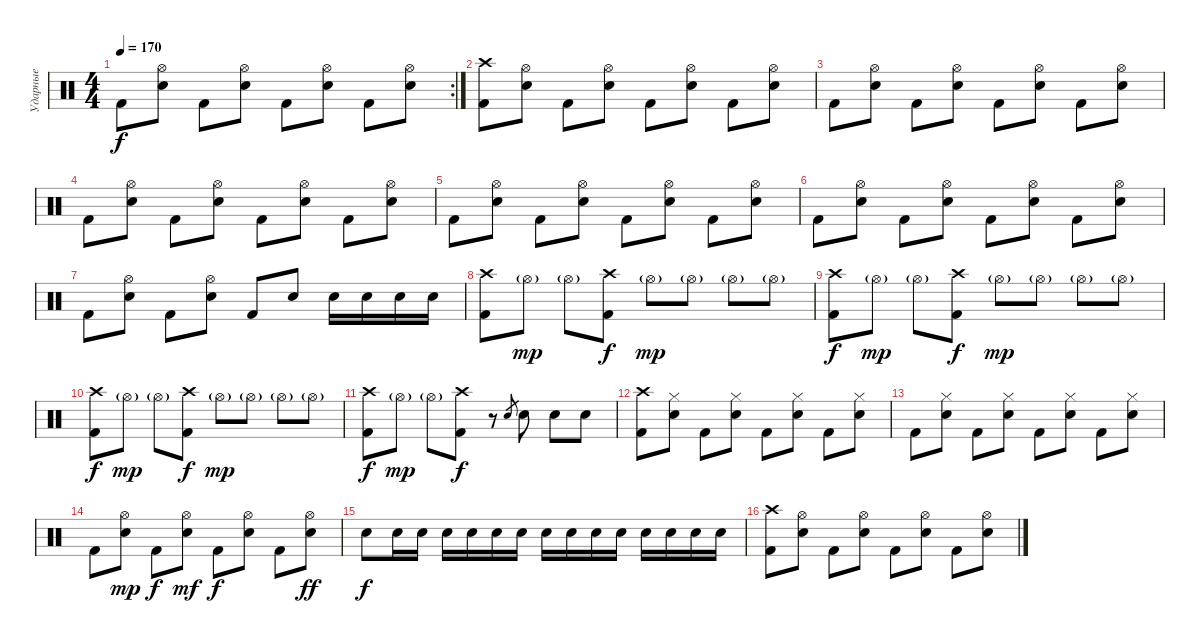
\track ("Ударные" "Ударные") {instrument percussion}
\staff {score}
\articulation defaults
\rc 2
\ts (4 4)
\tempo 170
\clef neutral
\ks c "Kick (hit) 2".8{dy f}
("Hi-Hat (open)" "Electric Snare (hit)").8 "Kick (hit) 2".8 ("Hi-Hat (open)" "Electric Snare (hit)").8 "Kick (hit) 2".8 ("Hi-Hat (open)" "Electric Snare (hit)").8 "Kick (hit) 2".8 ("Hi-Hat (open)" "Electric Snare (hit)").8 |
("Kick (hit) 2" "Crash high (hit)").8 ("Hi-Hat (open)" "Electric Snare (hit)").8 "Kick (hit) 2".8 ("Hi-Hat (open)" "Electric Snare (hit)").8 "Kick (hit) 2".8 ("Hi-Hat (open)" "Electric Snare (hit)").8 "Kick (hit) 2".8 ("Hi-Hat (open)" "Electric Snare (hit)").8 |
"Kick (hit) 2".8 ("Hi-Hat (open)" "Electric Snare (hit)").8 "Kick (hit) 2".8 ("Hi-Hat (open)" "Electric Snare (hit)").8 "Kick (hit) 2".8 ("Hi-Hat (open)" "Electric Snare (hit)").8 "Kick (hit) 2".8 ("Hi-Hat (open)" "Electric Snare (hit)").8 |
"Kick (hit) 2".8 ("Hi-Hat (open)" "Electric Snare (hit)").8 "Kick (hit) 2".8 ("Hi-Hat (open)" "Electric Snare (hit)").8 "Kick (hit) 2".8 ("Hi-Hat (open)" "Electric Snare (hit)").8 "Kick (hit) 2".8 ("Hi-Hat (open)" "Electric Snare (hit)").8 |
"Kick (hit) 2".8 ("Hi-Hat (open)" "Electric Snare (hit)").8 "Kick (hit) 2".8 ("Hi-Hat (open)" "Electric Snare (hit)").8 "Kick (hit) 2".8 ("Hi-Hat (open)" "Electric Snare (hit)").8 "Kick (hit) 2".8 ("Hi-Hat (open)" "Electric Snare (hit)").8 |
"Kick (hit) 2".8 ("Hi-Hat (open)" "Electric Snare (hit)").8 "Kick (hit) 2".8 ("Hi-Hat (open)" "Electric Snare (hit)").8 "Kick (hit) 2".8 ("Hi-Hat (open)" "Electric Snare (hit)").8 "Kick (hit) 2".8 ("Hi-Hat (open)" "Electric Snare (hit)").8 |
"Kick (hit) 2".8 ("Hi-Hat (open)" "Electric Snare (hit)").8 "Kick (hit) 2".8 ("Hi-Hat (open)" "Electric Snare (hit)").8 "Kick (hit) 2".8 "Electric Snare (hit)".8 "Electric Snare (hit)".16 "Electric Snare (hit)".16 "Electric Snare (hit)".16 "Electric Snare (hit)".16 |
("Kick (hit) 2" "Crash high (hit)").8 "Hi-Hat (open)"{g}.8{dy mp} "Hi-Hat (open)"{g}.8 ("Kick (hit) 2" "Crash high (hit)").8{dy f} "Hi-Hat (open)"{g}.8{dy mp} "Hi-Hat (open)"{g}.8 "Hi-Hat (open)"{g}.8 "Hi-Hat (open)"{g}.8 |
("Kick (hit) 2" "Crash high (hit)").8{dy f} "Hi-Hat (open)"{g}.8{dy mp} "Hi-Hat (open)"{g}.8 ("Kick (hit) 2" "Crash high (hit)").8{dy f} "Hi-Hat (open)"{g}.8{dy mp} "Hi-Hat (open)"{g}.8 "Hi-Hat (open)"{g}.8 "Hi-Hat (open)"{g}.8 |
("Kick (hit) 2" "Crash high (hit)").8{dy f} "Hi-Hat (open)"{g}.8{dy mp} "Hi-Hat (open)"{g}.8 ("Kick (hit) 2" "Crash high (hit)").8{dy f} "Hi-Hat (open)"{g}.8{dy mp} "Hi-Hat (open)"{g}.8 "Hi-Hat (open)"{g}.8 "Hi-Hat (open)"{g}.8 |
("Kick (hit) 2" "Crash high (hit)").8{dy f} "Hi-Hat (open)"{g}.8{dy mp} "Hi-Hat (open)"{g}.8 ("Kick (hit) 2" "Crash high (hit)").8{dy f} r.8 "Electric Snare (hit)".8{gr} "Electric Snare (hit)".8 "Electric Snare (hit)".8 "Electric Snare (hit)".8 |
("Kick (hit) 2" "Crash high (hit)").8 ("Hi-Hat (closed)" "Electric Snare (hit)").8 "Kick (hit) 2".8 ("Hi-Hat (closed)" "Electric Snare (hit)").8 "Kick (hit) 2".8 ("Hi-Hat (closed)" "Electric Snare (hit)").8 "Kick (hit) 2".8 ("Hi-Hat (closed)" "Electric Snare (hit)").8 |
"Kick (hit) 2".8 ("Hi-Hat (closed)" "Electric Snare (hit)").8 "Kick (hit) 2".8 ("Hi-Hat (closed)" "Electric Snare (hit)").8 "Kick (hit) 2".8 ("Hi-Hat (closed)" "Electric Snare (hit)").8 "Kick (hit) 2".8 ("Hi-Hat (closed)" "Electric Snare (hit)").8 |
"Kick (hit) 2".8 ("Hi-Hat (open)" "Electric Snare (hit)").8{dy mp} "Kick (hit) 2".8{dy f} ("Hi-Hat (open)" "Electric Snare (hit)").8{dy mf} "Kick (hit) 2".8{dy f} ("Hi-Hat (open)" "Electric Snare (hit)").8 "Kick (hit) 2".8 ("Hi-Hat (open)" "Electric Snare (hit)").8{dy ff} |
"Electric Snare (hit)".8{dy f} "Electric Snare (hit)".16 "Electric Snare (hit)".16 "Electric Snare (hit)".16 "Electric Snare (hit)".16 "Electric Snare (hit)".16 "Electric Snare (hit)".16 "Snare (hit) 2".16 "Snare (hit) 2".16 "Snare (hit) 2".16 "Snare (hit) 2".16 "Snare (hit) 2".16 "Snare (hit) 2".16 "Snare (hit) 2".16 "Snare (hit) 2".16 |
("Kick (hit) 2" "Crash high (hit)").8 ("Hi-Hat (open)" "Electric Snare (hit)").8 "Kick (hit) 2".8 ("Hi-Hat (open)" "Electric Snare (hit)").8 "Kick (hit) 2".8 ("Hi-Hat (open)" "Electric Snare (hit)").8 "Kick (hit) 2".8 ("Hi-Hat (open)" "Electric Snare (hit)").8
